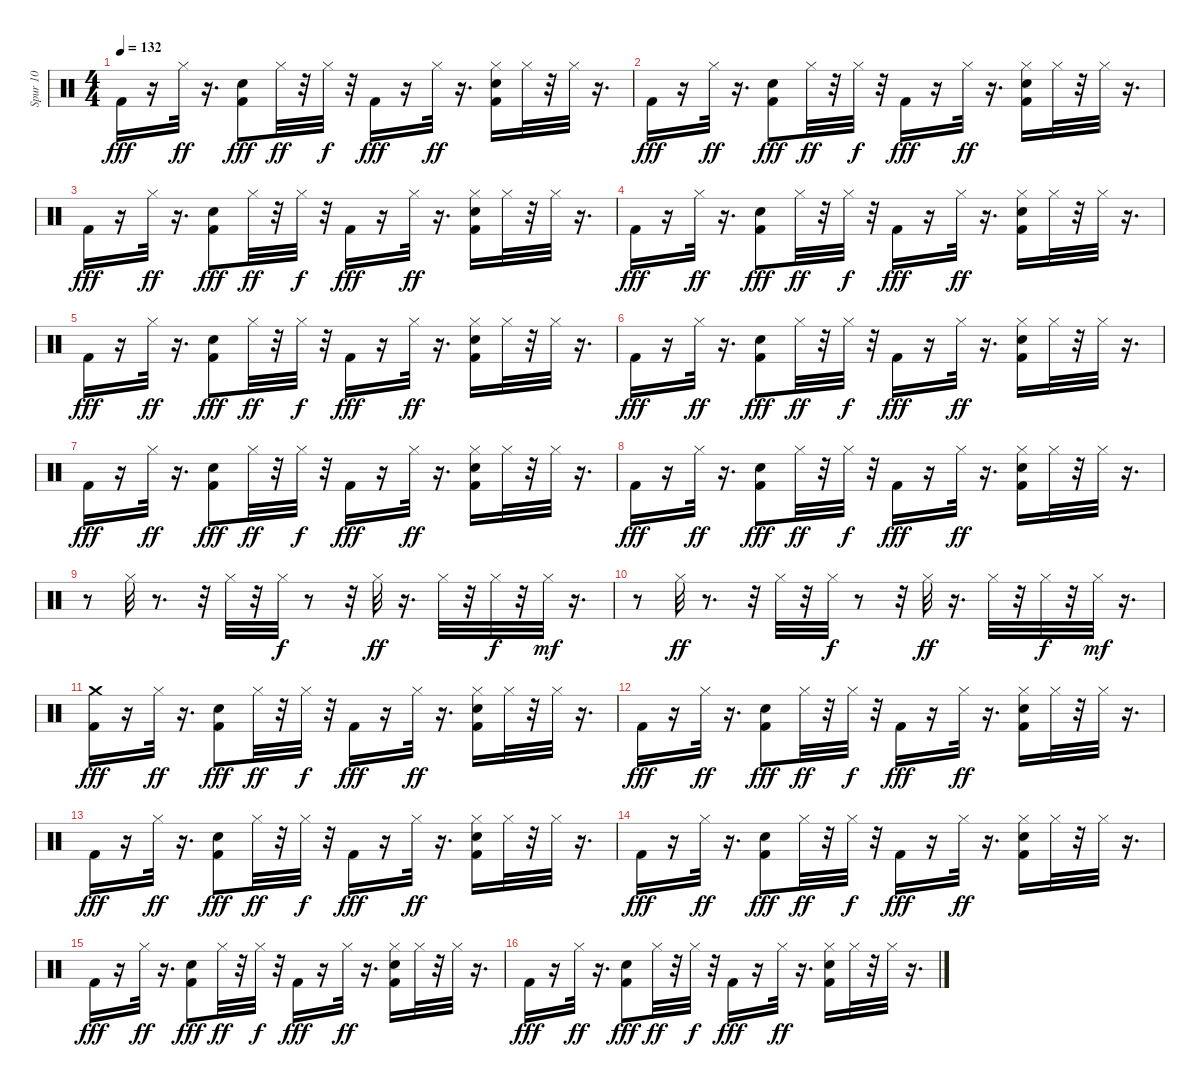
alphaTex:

\track ("Spur 10" "Spur 10") {instrument percussion}
\staff {score}
\articulation defaults
\ts (4 4)
\tempo 132
\clef neutral
\ks c "Kick (hit) 2".16{dy fff}
r.16 "Hi-Hat (closed)".32{dy ff} r.16{d} ("Snare (hit) 2" "Kick (hit) 2").8{dy fff} "Hi-Hat (closed)".32{dy ff} r.32 "Hi-Hat (closed)".32{dy f} r.32 "Kick (hit) 2".16{dy fff} r.16 "Hi-Hat (closed)".32{dy ff} r.16{d} ("Snare (hit) 2" "Kick (hit) 2" "Hi-Hat (closed)").16 "Hi-Hat (closed)".32 r.32 "Hi-Hat (closed)".32 r.16{d} |
"Kick (hit) 2".16{dy fff} r.16 "Hi-Hat (closed)".32{dy ff} r.16{d} ("Snare (hit) 2" "Kick (hit) 2").8{dy fff} "Hi-Hat (closed)".32{dy ff} r.32 "Hi-Hat (closed)".32{dy f} r.32 "Kick (hit) 2".16{dy fff} r.16 "Hi-Hat (closed)".32{dy ff} r.16{d} ("Snare (hit) 2" "Kick (hit) 2" "Hi-Hat (closed)").16 "Hi-Hat (closed)".32 r.32 "Hi-Hat (closed)".32 r.16{d} |
"Kick (hit) 2".16{dy fff} r.16 "Hi-Hat (closed)".32{dy ff} r.16{d} ("Snare (hit) 2" "Kick (hit) 2").8{dy fff} "Hi-Hat (closed)".32{dy ff} r.32 "Hi-Hat (closed)".32{dy f} r.32 "Kick (hit) 2".16{dy fff} r.16 "Hi-Hat (closed)".32{dy ff} r.16{d} ("Snare (hit) 2" "Kick (hit) 2" "Hi-Hat (closed)").16 "Hi-Hat (closed)".32 r.32 "Hi-Hat (closed)".32 r.16{d} |
"Kick (hit) 2".16{dy fff} r.16 "Hi-Hat (closed)".32{dy ff} r.16{d} ("Snare (hit) 2" "Kick (hit) 2").8{dy fff} "Hi-Hat (closed)".32{dy ff} r.32 "Hi-Hat (closed)".32{dy f} r.32 "Kick (hit) 2".16{dy fff} r.16 "Hi-Hat (closed)".32{dy ff} r.16{d} ("Snare (hit) 2" "Kick (hit) 2" "Hi-Hat (closed)").16 "Hi-Hat (closed)".32 r.32 "Hi-Hat (closed)".32 r.16{d} |
"Kick (hit) 2".16{dy fff} r.16 "Hi-Hat (closed)".32{dy ff} r.16{d} ("Snare (hit) 2" "Kick (hit) 2").8{dy fff} "Hi-Hat (closed)".32{dy ff} r.32 "Hi-Hat (closed)".32{dy f} r.32 "Kick (hit) 2".16{dy fff} r.16 "Hi-Hat (closed)".32{dy ff} r.16{d} ("Snare (hit) 2" "Kick (hit) 2" "Hi-Hat (closed)").16 "Hi-Hat (closed)".32 r.32 "Hi-Hat (closed)".32 r.16{d} |
"Kick (hit) 2".16{dy fff} r.16 "Hi-Hat (closed)".32{dy ff} r.16{d} ("Snare (hit) 2" "Kick (hit) 2").8{dy fff} "Hi-Hat (closed)".32{dy ff} r.32 "Hi-Hat (closed)".32{dy f} r.32 "Kick (hit) 2".16{dy fff} r.16 "Hi-Hat (closed)".32{dy ff} r.16{d} ("Snare (hit) 2" "Kick (hit) 2" "Hi-Hat (closed)").16 "Hi-Hat (closed)".32 r.32 "Hi-Hat (closed)".32 r.16{d} |
"Kick (hit) 2".16{dy fff} r.16 "Hi-Hat (closed)".32{dy ff} r.16{d} ("Snare (hit) 2" "Kick (hit) 2").8{dy fff} "Hi-Hat (closed)".32{dy ff} r.32 "Hi-Hat (closed)".32{dy f} r.32 "Kick (hit) 2".16{dy fff} r.16 "Hi-Hat (closed)".32{dy ff} r.16{d} ("Snare (hit) 2" "Kick (hit) 2" "Hi-Hat (closed)").16 "Hi-Hat (closed)".32 r.32 "Hi-Hat (closed)".32 r.16{d} |
"Kick (hit) 2".16{dy fff} r.16 "Hi-Hat (closed)".32{dy ff} r.16{d} ("Snare (hit) 2" "Kick (hit) 2").8{dy fff} "Hi-Hat (closed)".32{dy ff} r.32 "Hi-Hat (closed)".32{dy f} r.32 "Kick (hit) 2".16{dy fff} r.16 "Hi-Hat (closed)".32{dy ff} r.16{d} ("Snare (hit) 2" "Kick (hit) 2" "Hi-Hat (closed)").16 "Hi-Hat (closed)".32 r.32 "Hi-Hat (closed)".32 r.16{d} |
r.8 "Hi-Hat (closed)".32 r.8{d} r.32 "Hi-Hat (closed)".32 r.32 "Hi-Hat (closed)".32{dy f} r.8 r.32 "Hi-Hat (closed)".32{dy ff} r.16{d} "Hi-Hat (closed)".32 r.32 "Hi-Hat (closed)".32{dy f} r.32 "Hi-Hat (closed)".32{dy mf} r.16{d} |
r.8 "Hi-Hat (closed)".32{dy ff} r.8{d} r.32 "Hi-Hat (closed)".32 r.32 "Hi-Hat (closed)".32{dy f} r.8 r.32 "Hi-Hat (closed)".32{dy ff} r.16{d} "Hi-Hat (closed)".32 r.32 "Hi-Hat (closed)".32{dy f} r.32 "Hi-Hat (closed)".32{dy mf} r.16{d} |
("Crash medium (hit)" "Kick (hit) 2").16{dy fff} r.16 "Hi-Hat (closed)".32{dy ff} r.16{d} ("Snare (hit) 2" "Kick (hit) 2").8{dy fff} "Hi-Hat (closed)".32{dy ff} r.32 "Hi-Hat (closed)".32{dy f} r.32 "Kick (hit) 2".16{dy fff} r.16 "Hi-Hat (closed)".32{dy ff} r.16{d} ("Snare (hit) 2" "Kick (hit) 2" "Hi-Hat (closed)").16 "Hi-Hat (closed)".32 r.32 "Hi-Hat (closed)".32 r.16{d} |
"Kick (hit) 2".16{dy fff} r.16 "Hi-Hat (closed)".32{dy ff} r.16{d} ("Snare (hit) 2" "Kick (hit) 2").8{dy fff} "Hi-Hat (closed)".32{dy ff} r.32 "Hi-Hat (closed)".32{dy f} r.32 "Kick (hit) 2".16{dy fff} r.16 "Hi-Hat (closed)".32{dy ff} r.16{d} ("Snare (hit) 2" "Kick (hit) 2" "Hi-Hat (closed)").16 "Hi-Hat (closed)".32 r.32 "Hi-Hat (closed)".32 r.16{d} |
"Kick (hit) 2".16{dy fff} r.16 "Hi-Hat (closed)".32{dy ff} r.16{d} ("Snare (hit) 2" "Kick (hit) 2").8{dy fff} "Hi-Hat (closed)".32{dy ff} r.32 "Hi-Hat (closed)".32{dy f} r.32 "Kick (hit) 2".16{dy fff} r.16 "Hi-Hat (closed)".32{dy ff} r.16{d} ("Snare (hit) 2" "Kick (hit) 2" "Hi-Hat (closed)").16 "Hi-Hat (closed)".32 r.32 "Hi-Hat (closed)".32 r.16{d} |
"Kick (hit) 2".16{dy fff} r.16 "Hi-Hat (closed)".32{dy ff} r.16{d} ("Snare (hit) 2" "Kick (hit) 2").8{dy fff} "Hi-Hat (closed)".32{dy ff} r.32 "Hi-Hat (closed)".32{dy f} r.32 "Kick (hit) 2".16{dy fff} r.16 "Hi-Hat (closed)".32{dy ff} r.16{d} ("Snare (hit) 2" "Kick (hit) 2" "Hi-Hat (closed)").16 "Hi-Hat (closed)".32 r.32 "Hi-Hat (closed)".32 r.16{d} |
"Kick (hit) 2".16{dy fff} r.16 "Hi-Hat (closed)".32{dy ff} r.16{d} ("Snare (hit) 2" "Kick (hit) 2").8{dy fff} "Hi-Hat (closed)".32{dy ff} r.32 "Hi-Hat (closed)".32{dy f} r.32 "Kick (hit) 2".16{dy fff} r.16 "Hi-Hat (closed)".32{dy ff} r.16{d} ("Snare (hit) 2" "Kick (hit) 2" "Hi-Hat (closed)").16 "Hi-Hat (closed)".32 r.32 "Hi-Hat (closed)".32 r.16{d} |
"Kick (hit) 2".16{dy fff} r.16 "Hi-Hat (closed)".32{dy ff} r.16{d} ("Snare (hit) 2" "Kick (hit) 2").8{dy fff} "Hi-Hat (closed)".32{dy ff} r.32 "Hi-Hat (closed)".32{dy f} r.32 "Kick (hit) 2".16{dy fff} r.16 "Hi-Hat (closed)".32{dy ff} r.16{d} ("Snare (hit) 2" "Kick (hit) 2" "Hi-Hat (closed)").16 "Hi-Hat (closed)".32 r.32 "Hi-Hat (closed)".32 r.16{d}
